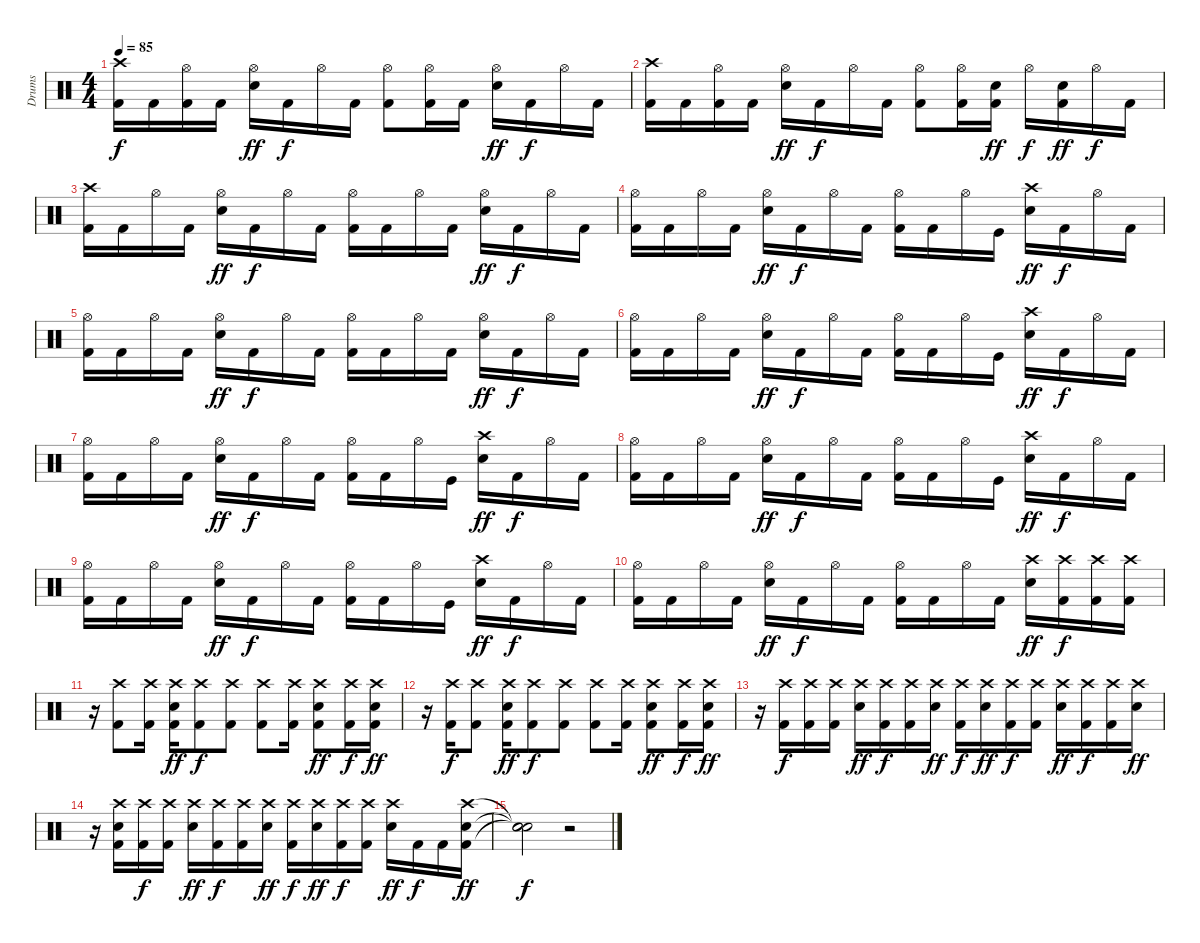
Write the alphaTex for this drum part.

\track ("Drums" "Drums") {instrument percussion}
\staff {score}
\articulation defaults
\ts (4 4)
\tempo 85
\clef neutral
\ks c
("Crash high (hit)" "Kick (hit) 2").16{dy f} "Kick (hit) 2".16 ("Hi-Hat (open)" "Kick (hit) 2").16 "Kick (hit) 2".16 ("Hi-Hat (open)" "Electric Snare (hit)").16{dy ff} "Kick (hit) 2".16{dy f} "Hi-Hat (open)".16 "Kick (hit) 2".16 ("Hi-Hat (open)" "Kick (hit) 2").8 ("Hi-Hat (open)" "Kick (hit) 2").16 "Kick (hit) 2".16 ("Hi-Hat (open)" "Electric Snare (hit)").16{dy ff} "Kick (hit) 2".16{dy f} "Hi-Hat (open)".16 "Kick (hit) 2".16 |
("Crash high (hit)" "Kick (hit) 2").16 "Kick (hit) 2".16 ("Hi-Hat (open)" "Kick (hit) 2").16 "Kick (hit) 2".16 ("Hi-Hat (open)" "Electric Snare (hit)").16{dy ff} "Kick (hit) 2".16{dy f} "Hi-Hat (open)".16 "Kick (hit) 2".16 ("Hi-Hat (open)" "Kick (hit) 2").8 ("Hi-Hat (open)" "Kick (hit) 2").16 ("Electric Snare (hit)" "Kick (hit) 2").16{dy ff} "Hi-Hat (open)".16{dy f} ("Electric Snare (hit)" "Kick (hit) 2").16{dy ff} "Hi-Hat (open)".16{dy f} "Kick (hit) 2".16 |
("Crash high (hit)" "Kick (hit) 2").16 "Kick (hit) 2".16 "Hi-Hat (open)".16 "Kick (hit) 2".16 ("Hi-Hat (open)" "Electric Snare (hit)").16{dy ff} "Kick (hit) 2".16{dy f} "Hi-Hat (open)".16 "Kick (hit) 2".16 ("Hi-Hat (open)" "Kick (hit) 2").16 "Kick (hit) 2".16 "Hi-Hat (open)".16 "Kick (hit) 2".16 ("Hi-Hat (open)" "Electric Snare (hit)").16{dy ff} "Kick (hit) 2".16{dy f} "Hi-Hat (open)".16 "Kick (hit) 2".16 |
("Hi-Hat (open)" "Kick (hit) 2").16 "Kick (hit) 2".16 "Hi-Hat (open)".16 "Kick (hit) 2".16 ("Hi-Hat (open)" "Electric Snare (hit)").16{dy ff} "Kick (hit) 2".16{dy f} "Hi-Hat (open)".16 "Kick (hit) 2".16 ("Hi-Hat (open)" "Kick (hit) 2").16 "Kick (hit) 2".16 "Hi-Hat (open)".16 "Kick (hit)".16 ("Crash high (hit)" "Electric Snare (hit)").16{dy ff} "Kick (hit) 2".16{dy f} "Hi-Hat (open)".16 "Kick (hit) 2".16 |
("Hi-Hat (open)" "Kick (hit) 2").16 "Kick (hit) 2".16 "Hi-Hat (open)".16 "Kick (hit) 2".16 ("Hi-Hat (open)" "Electric Snare (hit)").16{dy ff} "Kick (hit) 2".16{dy f} "Hi-Hat (open)".16 "Kick (hit) 2".16 ("Hi-Hat (open)" "Kick (hit) 2").16 "Kick (hit) 2".16 "Hi-Hat (open)".16 "Kick (hit) 2".16 ("Hi-Hat (open)" "Electric Snare (hit)").16{dy ff} "Kick (hit) 2".16{dy f} "Hi-Hat (open)".16 "Kick (hit) 2".16 |
("Hi-Hat (open)" "Kick (hit) 2").16 "Kick (hit) 2".16 "Hi-Hat (open)".16 "Kick (hit) 2".16 ("Hi-Hat (open)" "Electric Snare (hit)").16{dy ff} "Kick (hit) 2".16{dy f} "Hi-Hat (open)".16 "Kick (hit) 2".16 ("Hi-Hat (open)" "Kick (hit) 2").16 "Kick (hit) 2".16 "Hi-Hat (open)".16 "Kick (hit)".16 ("Crash high (hit)" "Electric Snare (hit)").16{dy ff} "Kick (hit) 2".16{dy f} "Hi-Hat (open)".16 "Kick (hit) 2".16 |
("Hi-Hat (open)" "Kick (hit) 2").16 "Kick (hit) 2".16 "Hi-Hat (open)".16 "Kick (hit) 2".16 ("Hi-Hat (open)" "Electric Snare (hit)").16{dy ff} "Kick (hit) 2".16{dy f} "Hi-Hat (open)".16 "Kick (hit) 2".16 ("Hi-Hat (open)" "Kick (hit) 2").16 "Kick (hit) 2".16 "Hi-Hat (open)".16 "Kick (hit)".16 ("Crash high (hit)" "Electric Snare (hit)").16{dy ff} "Kick (hit) 2".16{dy f} "Hi-Hat (open)".16 "Kick (hit) 2".16 |
("Hi-Hat (open)" "Kick (hit) 2").16 "Kick (hit) 2".16 "Hi-Hat (open)".16 "Kick (hit) 2".16 ("Hi-Hat (open)" "Electric Snare (hit)").16{dy ff} "Kick (hit) 2".16{dy f} "Hi-Hat (open)".16 "Kick (hit) 2".16 ("Hi-Hat (open)" "Kick (hit) 2").16 "Kick (hit) 2".16 "Hi-Hat (open)".16 "Kick (hit)".16 ("Crash high (hit)" "Electric Snare (hit)").16{dy ff} "Kick (hit) 2".16{dy f} "Hi-Hat (open)".16 "Kick (hit) 2".16 |
("Hi-Hat (open)" "Kick (hit) 2").16 "Kick (hit) 2".16 "Hi-Hat (open)".16 "Kick (hit) 2".16 ("Hi-Hat (open)" "Electric Snare (hit)").16{dy ff} "Kick (hit) 2".16{dy f} "Hi-Hat (open)".16 "Kick (hit) 2".16 ("Hi-Hat (open)" "Kick (hit) 2").16 "Kick (hit) 2".16 "Hi-Hat (open)".16 "Kick (hit)".16 ("Crash high (hit)" "Electric Snare (hit)").16{dy ff} "Kick (hit) 2".16{dy f} "Hi-Hat (open)".16 "Kick (hit) 2".16 |
("Hi-Hat (open)" "Kick (hit) 2").16 "Kick (hit) 2".16 "Hi-Hat (open)".16 "Kick (hit) 2".16 ("Hi-Hat (open)" "Electric Snare (hit)").16{dy ff} "Kick (hit) 2".16{dy f} "Hi-Hat (open)".16 "Kick (hit) 2".16 ("Hi-Hat (open)" "Kick (hit) 2").16 "Kick (hit) 2".16 "Hi-Hat (open)".16 "Kick (hit) 2".16 ("Crash high (hit)" "Electric Snare (hit)").16{dy ff} ("Crash high (hit)" "Kick (hit) 2").16{dy f} ("Crash high (hit)" "Kick (hit) 2").16 ("Crash high (hit)" "Kick (hit) 2").16 |
r.16 ("Crash high (hit)" "Kick (hit) 2").8 ("Crash high (hit)" "Kick (hit) 2").16 ("Crash high (hit)" "Electric Snare (hit)" "Kick (hit) 2").16{dy ff} ("Crash high (hit)" "Kick (hit) 2").8{dy f} ("Crash high (hit)" "Kick (hit) 2").8 ("Crash high (hit)" "Kick (hit) 2").8 ("Crash high (hit)" "Kick (hit) 2").16 ("Crash high (hit)" "Electric Snare (hit)" "Kick (hit) 2").8{dy ff} ("Crash high (hit)" "Kick (hit) 2").16{dy f} ("Crash high (hit)" "Electric Snare (hit)" "Kick (hit) 2").16{dy ff} |
r.16 ("Crash high (hit)" "Kick (hit) 2").16{dy f} ("Crash high (hit)" "Kick (hit) 2").8 ("Crash high (hit)" "Electric Snare (hit)" "Kick (hit) 2").16{dy ff} ("Crash high (hit)" "Kick (hit) 2").8{dy f} ("Crash high (hit)" "Kick (hit) 2").8 ("Crash high (hit)" "Kick (hit) 2").8 ("Crash high (hit)" "Kick (hit) 2").16 ("Crash high (hit)" "Electric Snare (hit)" "Kick (hit) 2").8{dy ff} ("Crash high (hit)" "Kick (hit) 2").16{dy f} ("Crash high (hit)" "Electric Snare (hit)" "Kick (hit) 2").16{dy ff} |
r.16 ("Crash high (hit)" "Kick (hit) 2").16{dy f} ("Crash high (hit)" "Kick (hit) 2").16 ("Crash high (hit)" "Kick (hit) 2").16 ("Crash high (hit)" "Electric Snare (hit)").16{dy ff} ("Crash high (hit)" "Kick (hit) 2").16{dy f} ("Crash high (hit)" "Kick (hit) 2").16 ("Crash high (hit)" "Electric Snare (hit)").16{dy ff} ("Crash high (hit)" "Kick (hit) 2").16{dy f} ("Crash high (hit)" "Electric Snare (hit)").16{dy ff} ("Crash high (hit)" "Kick (hit) 2").16{dy f} ("Crash high (hit)" "Kick (hit) 2").16 ("Crash high (hit)" "Electric Snare (hit)").16{dy ff} ("Crash high (hit)" "Kick (hit) 2").16{dy f} ("Crash high (hit)" "Kick (hit) 2").16 ("Crash high (hit)" "Electric Snare (hit)").16{dy ff} |
r.16 ("Crash high (hit)" "Electric Snare (hit)" "Kick (hit) 2").16 ("Crash high (hit)" "Kick (hit) 2").16{dy f} ("Crash high (hit)" "Kick (hit) 2").16 ("Crash high (hit)" "Electric Snare (hit)").16{dy ff} ("Crash high (hit)" "Kick (hit) 2").16{dy f} ("Crash high (hit)" "Kick (hit) 2").16 ("Crash high (hit)" "Electric Snare (hit)").16{dy ff} ("Crash high (hit)" "Kick (hit) 2").16{dy f} ("Crash high (hit)" "Electric Snare (hit)").16{dy ff} ("Crash high (hit)" "Kick (hit) 2").16{dy f} ("Crash high (hit)" "Kick (hit) 2").16 ("Crash high (hit)" "Electric Snare (hit)").16{dy ff} "Kick (hit) 2".16{dy f} "Kick (hit) 2".16 ("Crash high (hit)" "Electric Snare (hit)" "Kick (hit) 2").16{dy ff} |
("Snare (hit)"{t} "Snare (hit)"{t} "Snare (hit)"{t}).2{dy f} r.2
